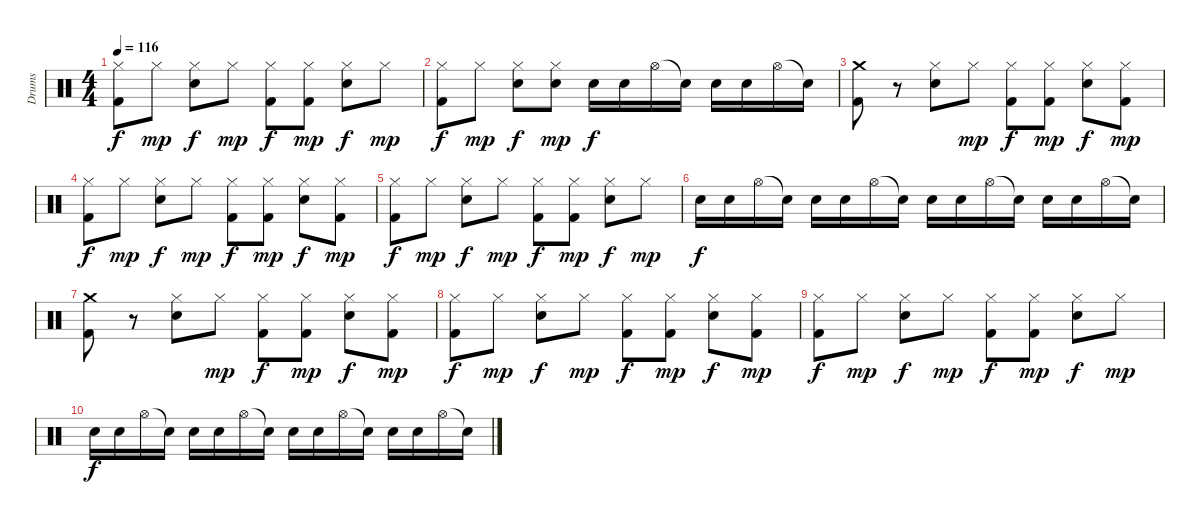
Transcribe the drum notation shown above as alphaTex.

\track ("Drums" "Drums") {instrument percussion}
\staff {score}
\articulation defaults
\ts (4 4)
\tempo 116
\clef neutral
\ks c
("Hi-Hat (closed)" "Kick (hit) 2").8{dy f} "Hi-Hat (closed)".8{dy mp} ("Hi-Hat (closed)" "Snare (hit) 2").8{dy f} "Hi-Hat (closed)".8{dy mp} ("Hi-Hat (closed)" "Kick (hit) 2").8{dy f} ("Hi-Hat (closed)" "Kick (hit) 2").8{dy mp} ("Hi-Hat (closed)" "Snare (hit) 2").8{dy f} "Hi-Hat (closed)".8{dy mp} |
("Hi-Hat (closed)" "Kick (hit) 2").8{dy f} "Hi-Hat (closed)".8{dy mp} ("Hi-Hat (closed)" "Snare (hit) 2").8{dy f} ("Hi-Hat (closed)" "Snare (hit) 2").8{dy mp} "Snare (hit) 2".16{dy f} "Snare (hit) 2".16 "Hi-Hat (open)".16 "Snare (hit)"{t}.16 "Snare (hit) 2".16 "Snare (hit) 2".16 "Hi-Hat (open)".16 "Snare (hit)"{t}.16 |
("Crash medium (hit)" "Kick (hit) 2").8 r.8 ("Hi-Hat (closed)" "Snare (hit) 2").8 "Hi-Hat (closed)".8{dy mp} ("Hi-Hat (closed)" "Kick (hit) 2").8{dy f} ("Hi-Hat (closed)" "Kick (hit) 2").8{dy mp} ("Hi-Hat (closed)" "Snare (hit) 2").8{dy f} ("Hi-Hat (closed)" "Kick (hit) 2").8{dy mp} |
("Hi-Hat (closed)" "Kick (hit) 2").8{dy f} "Hi-Hat (closed)".8{dy mp} ("Hi-Hat (closed)" "Snare (hit) 2").8{dy f} "Hi-Hat (closed)".8{dy mp} ("Hi-Hat (closed)" "Kick (hit) 2").8{dy f} ("Hi-Hat (closed)" "Kick (hit) 2").8{dy mp} ("Hi-Hat (closed)" "Snare (hit) 2").8{dy f} ("Hi-Hat (closed)" "Kick (hit) 2").8{dy mp} |
("Hi-Hat (closed)" "Kick (hit) 2").8{dy f} "Hi-Hat (closed)".8{dy mp} ("Hi-Hat (closed)" "Snare (hit) 2").8{dy f} "Hi-Hat (closed)".8{dy mp} ("Hi-Hat (closed)" "Kick (hit) 2").8{dy f} ("Hi-Hat (closed)" "Kick (hit) 2").8{dy mp} ("Hi-Hat (closed)" "Snare (hit) 2").8{dy f} "Hi-Hat (closed)".8{dy mp} |
"Snare (hit) 2".16{dy f} "Snare (hit) 2".16 "Hi-Hat (open)".16 "Snare (hit)"{t}.16 "Snare (hit) 2".16 "Snare (hit) 2".16 "Hi-Hat (open)".16 "Snare (hit)"{t}.16 "Snare (hit) 2".16 "Snare (hit) 2".16 "Hi-Hat (open)".16 "Snare (hit)"{t}.16 "Snare (hit) 2".16 "Snare (hit) 2".16 "Hi-Hat (open)".16 "Snare (hit)"{t}.16 |
("Crash medium (hit)" "Kick (hit) 2").8 r.8 ("Hi-Hat (closed)" "Snare (hit) 2").8 "Hi-Hat (closed)".8{dy mp} ("Hi-Hat (closed)" "Kick (hit) 2").8{dy f} ("Hi-Hat (closed)" "Kick (hit) 2").8{dy mp} ("Hi-Hat (closed)" "Snare (hit) 2").8{dy f} ("Hi-Hat (closed)" "Kick (hit) 2").8{dy mp} |
("Hi-Hat (closed)" "Kick (hit) 2").8{dy f} "Hi-Hat (closed)".8{dy mp} ("Hi-Hat (closed)" "Snare (hit) 2").8{dy f} "Hi-Hat (closed)".8{dy mp} ("Hi-Hat (closed)" "Kick (hit) 2").8{dy f} ("Hi-Hat (closed)" "Kick (hit) 2").8{dy mp} ("Hi-Hat (closed)" "Snare (hit) 2").8{dy f} ("Hi-Hat (closed)" "Kick (hit) 2").8{dy mp} |
("Hi-Hat (closed)" "Kick (hit) 2").8{dy f} "Hi-Hat (closed)".8{dy mp} ("Hi-Hat (closed)" "Snare (hit) 2").8{dy f} "Hi-Hat (closed)".8{dy mp} ("Hi-Hat (closed)" "Kick (hit) 2").8{dy f} ("Hi-Hat (closed)" "Kick (hit) 2").8{dy mp} ("Hi-Hat (closed)" "Snare (hit) 2").8{dy f} "Hi-Hat (closed)".8{dy mp} |
"Snare (hit) 2".16{dy f} "Snare (hit) 2".16 "Hi-Hat (open)".16 "Snare (hit)"{t}.16 "Snare (hit) 2".16 "Snare (hit) 2".16 "Hi-Hat (open)".16 "Snare (hit)"{t}.16 "Snare (hit) 2".16 "Snare (hit) 2".16 "Hi-Hat (open)".16 "Snare (hit)"{t}.16 "Snare (hit) 2".16 "Snare (hit) 2".16 "Hi-Hat (open)".16 "Snare (hit)"{t}.16
